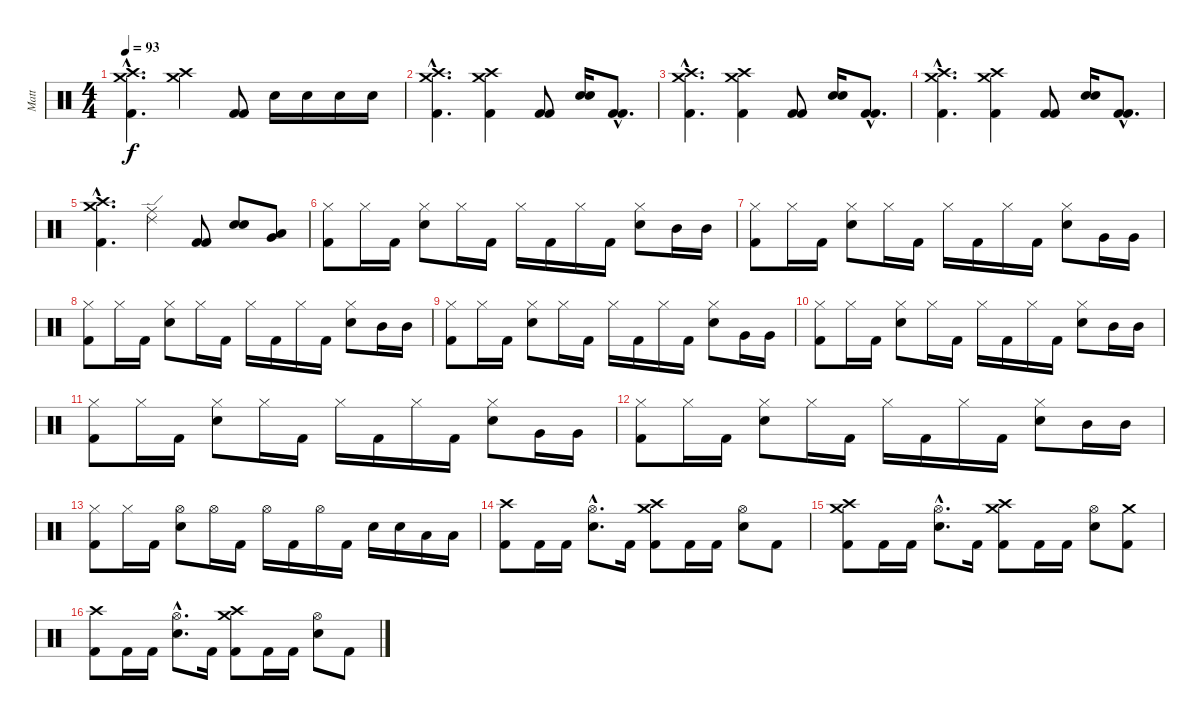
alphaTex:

\track ("Matt" "Matt") {instrument percussion}
\staff {score}
\articulation defaults
\ts (4 4)
\tempo 93
\clef neutral
\ks c
("Crash medium (hit)"{hac} "Crash high (hit)"{hac} "Kick (hit) 2"{hac}).4{d dy f} ("Crash high (hit)" "Crash medium (hit)").4 ("Kick (hit) 2" "Kick (hit) 2").8 "Electric Snare (hit)".16 "Electric Snare (hit)".16 "Electric Snare (hit)".16 "Electric Snare (hit)".16 |
("Crash medium (hit)"{hac} "Crash high (hit)"{hac} "Kick (hit) 2"{hac}).4{d} ("Crash high (hit)" "Crash medium (hit)" "Kick (hit) 2").4 ("Kick (hit) 2" "Kick (hit) 2").8 ("Electric Snare (hit)" "Electric Snare (hit)").16 ("Kick (hit) 2"{hac} "Kick (hit) 2"{hac}).8{d} |
("Crash medium (hit)"{hac} "Crash high (hit)"{hac} "Kick (hit) 2"{hac}).4{d} ("Crash high (hit)" "Crash medium (hit)" "Kick (hit) 2").4 ("Kick (hit) 2" "Kick (hit) 2").8 ("Electric Snare (hit)" "Electric Snare (hit)").16 ("Kick (hit) 2"{hac} "Kick (hit) 2"{hac}).8{d} |
("Crash medium (hit)"{hac} "Crash high (hit)"{hac} "Kick (hit) 2"{hac}).4{d} ("Crash medium (hit)" "Crash high (hit)" "Kick (hit) 2").4 ("Kick (hit) 2" "Kick (hit) 2").8 ("Electric Snare (hit)" "Electric Snare (hit)").16 ("Kick (hit) 2"{hac} "Kick (hit) 2"{hac}).8{d} |
("Crash medium (hit)"{hac} "Crash high (hit)"{hac} "Kick (hit) 2"{hac}).4{d} ("Ride (edge) 2" "Ride (middle)").4 ("Kick (hit) 2" "Kick (hit) 2").8 ("Electric Snare (hit)" "Electric Snare (hit)").8 ("Low Tom (hit)" "Very Low Tom (hit)").8 |
("Hi-Hat (closed)" "Kick (hit) 2").8 "Hi-Hat (closed)".16 "Kick (hit) 2".16 ("Hi-Hat (closed)" "Electric Snare (hit)").8 "Hi-Hat (closed)".16 "Kick (hit) 2".16 "Hi-Hat (closed)".16 "Kick (hit) 2".16 "Hi-Hat (closed)".16 "Kick (hit) 2".16 ("Hi-Hat (closed)" "Electric Snare (hit)").8 "Mid Tom (hit)".16 "Mid Tom (hit)".16 |
("Hi-Hat (closed)" "Kick (hit) 2").8 "Hi-Hat (closed)".16 "Kick (hit) 2".16 ("Hi-Hat (closed)" "Electric Snare (hit)").8 "Hi-Hat (closed)".16 "Kick (hit) 2".16 "Hi-Hat (closed)".16 "Kick (hit) 2".16 "Hi-Hat (closed)".16 "Kick (hit) 2".16 ("Hi-Hat (closed)" "Electric Snare (hit)").8 "Very Low Tom (hit)".16 "Very Low Tom (hit)".16 |
("Hi-Hat (closed)" "Kick (hit) 2").8 "Hi-Hat (closed)".16 "Kick (hit) 2".16 ("Hi-Hat (closed)" "Electric Snare (hit)").8 "Hi-Hat (closed)".16 "Kick (hit) 2".16 "Hi-Hat (closed)".16 "Kick (hit) 2".16 "Hi-Hat (closed)".16 "Kick (hit) 2".16 ("Hi-Hat (closed)" "Electric Snare (hit)").8 "Mid Tom (hit)".16 "Mid Tom (hit)".16 |
("Hi-Hat (closed)" "Kick (hit) 2").8 "Hi-Hat (closed)".16 "Kick (hit) 2".16 ("Hi-Hat (closed)" "Electric Snare (hit)").8 "Hi-Hat (closed)".16 "Kick (hit) 2".16 "Hi-Hat (closed)".16 "Kick (hit) 2".16 "Hi-Hat (closed)".16 "Kick (hit) 2".16 ("Hi-Hat (closed)" "Electric Snare (hit)").8 "Very Low Tom (hit)".16 "Very Low Tom (hit)".16 |
("Hi-Hat (closed)" "Kick (hit) 2").8 "Hi-Hat (closed)".16 "Kick (hit) 2".16 ("Hi-Hat (closed)" "Electric Snare (hit)").8 "Hi-Hat (closed)".16 "Kick (hit) 2".16 "Hi-Hat (closed)".16 "Kick (hit) 2".16 "Hi-Hat (closed)".16 "Kick (hit) 2".16 ("Hi-Hat (closed)" "Electric Snare (hit)").8 "Mid Tom (hit)".16 "Mid Tom (hit)".16 |
("Hi-Hat (closed)" "Kick (hit) 2").8 "Hi-Hat (closed)".16 "Kick (hit) 2".16 ("Hi-Hat (closed)" "Electric Snare (hit)").8 "Hi-Hat (closed)".16 "Kick (hit) 2".16 "Hi-Hat (closed)".16 "Kick (hit) 2".16 "Hi-Hat (closed)".16 "Kick (hit) 2".16 ("Hi-Hat (closed)" "Electric Snare (hit)").8 "Very Low Tom (hit)".16 "Very Low Tom (hit)".16 |
("Hi-Hat (closed)" "Kick (hit) 2").8 "Hi-Hat (closed)".16 "Kick (hit) 2".16 ("Hi-Hat (closed)" "Electric Snare (hit)").8 "Hi-Hat (closed)".16 "Kick (hit) 2".16 "Hi-Hat (closed)".16 "Kick (hit) 2".16 "Hi-Hat (closed)".16 "Kick (hit) 2".16 ("Hi-Hat (closed)" "Electric Snare (hit)").8 "Mid Tom (hit)".16 "Mid Tom (hit)".16 |
("Hi-Hat (closed)" "Kick (hit) 2").8 "Hi-Hat (closed)".16 "Kick (hit) 2".16 ("Hi-Hat (open)" "Electric Snare (hit)").8 "Hi-Hat (open)".16 "Kick (hit) 2".16 "Hi-Hat (open)".16 "Kick (hit) 2".16 "Hi-Hat (open)".16 "Kick (hit) 2".16 "Electric Snare (hit)".16 "Electric Snare (hit)".16 "Low Tom (hit)".16 "Low Tom (hit)".16 |
("Crash high (hit)" "Kick (hit) 2").8 "Kick (hit) 2".16 "Kick (hit) 2".16 ("Hi-Hat (open)"{hac} "Electric Snare (hit)"{hac}).8{d} "Kick (hit) 2".16 ("Crash medium (hit)" "Crash high (hit)" "Kick (hit) 2").8 "Kick (hit) 2".16 "Kick (hit) 2".16 ("Hi-Hat (open)" "Electric Snare (hit)").8 "Kick (hit) 2".8 |
("Crash medium (hit)" "Crash high (hit)" "Kick (hit) 2").8 "Kick (hit) 2".16 "Kick (hit) 2".16 ("Hi-Hat (open)"{hac} "Electric Snare (hit)"{hac}).8{d} "Kick (hit) 2".16 ("Crash medium (hit)" "Crash high (hit)" "Kick (hit) 2").8 "Kick (hit) 2".16 "Kick (hit) 2".16 ("Hi-Hat (open)" "Electric Snare (hit)").8 ("Crash medium (hit)" "Kick (hit) 2").8 |
("Crash high (hit)" "Kick (hit) 2").8 "Kick (hit) 2".16 "Kick (hit) 2".16 ("Hi-Hat (open)"{hac} "Electric Snare (hit)"{hac}).8{d} "Kick (hit) 2".16 ("Crash medium (hit)" "Crash high (hit)" "Kick (hit) 2").8 "Kick (hit) 2".16 "Kick (hit) 2".16 ("Hi-Hat (open)" "Electric Snare (hit)").8 "Kick (hit) 2".8
